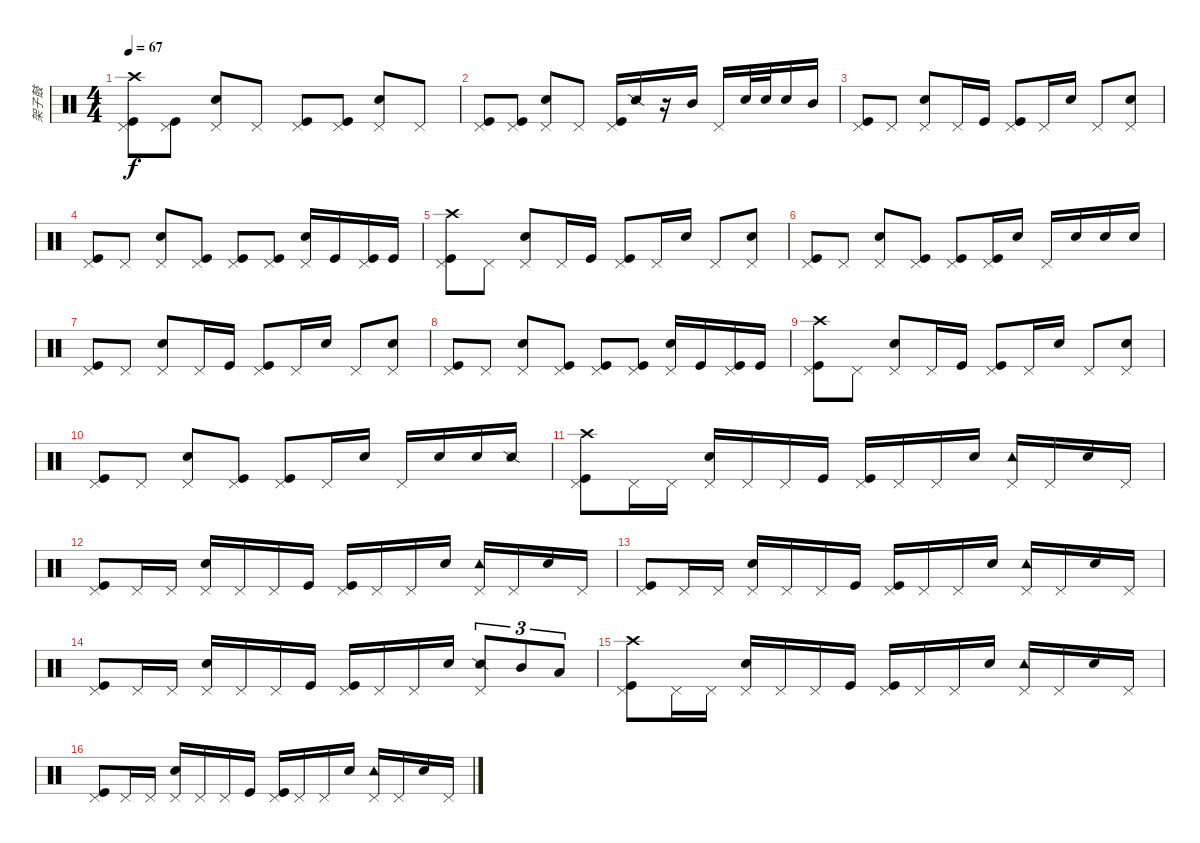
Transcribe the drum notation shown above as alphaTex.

\track ("架子鼓" "架子鼓") {instrument percussion}
\staff {score}
\articulation defaults
\ts (4 4)
\tempo 67
\clef neutral
\ks c
("Kick (hit)" "Pedal Hi-Hat (hit)" "Crash high (hit)").8{dy f} ("Kick (hit)" "Pedal Hi-Hat (hit)").8 ("Snare (hit) 2" "Pedal Hi-Hat (hit)").8 "Pedal Hi-Hat (hit)".8 ("Kick (hit)" "Pedal Hi-Hat (hit)").8 ("Kick (hit)" "Pedal Hi-Hat (hit)").8 ("Snare (hit) 2" "Pedal Hi-Hat (hit)").8 "Pedal Hi-Hat (hit)".8 |
("Kick (hit)" "Pedal Hi-Hat (hit)").8 ("Kick (hit)" "Pedal Hi-Hat (hit)").8 ("Snare (hit) 2" "Pedal Hi-Hat (hit)").8 "Pedal Hi-Hat (hit)".8 ("Kick (hit)" "Pedal Hi-Hat (hit)").16 "Snare (side stick) 2".16 r.16 "Mid Tom (hit)".16 "Pedal Hi-Hat (hit)".16 "Snare (hit) 2".32 "Snare (hit) 2".32 "Snare (hit) 2".16 "Mid Tom (hit)".16 |
("Kick (hit)" "Pedal Hi-Hat (hit)").8 "Pedal Hi-Hat (hit)".8 ("Snare (hit) 2" "Pedal Hi-Hat (hit)").8 "Pedal Hi-Hat (hit)".16 "Kick (hit)".16 ("Kick (hit)" "Pedal Hi-Hat (hit)").8 "Pedal Hi-Hat (hit)".16 "Snare (hit) 2".16 "Pedal Hi-Hat (hit)".8 ("Snare (hit) 2" "Pedal Hi-Hat (hit)").8 |
("Kick (hit)" "Pedal Hi-Hat (hit)").8 "Pedal Hi-Hat (hit)".8 ("Snare (hit) 2" "Pedal Hi-Hat (hit)").8 ("Kick (hit)" "Pedal Hi-Hat (hit)").8 ("Kick (hit)" "Pedal Hi-Hat (hit)").8 ("Kick (hit)" "Pedal Hi-Hat (hit)").8 ("Snare (hit) 2" "Pedal Hi-Hat (hit)").16 "Kick (hit)".16 ("Kick (hit)" "Pedal Hi-Hat (hit)").16 "Kick (hit)".16 |
("Kick (hit)" "Pedal Hi-Hat (hit)" "Crash high (hit)").8 "Pedal Hi-Hat (hit)".8 ("Snare (hit) 2" "Pedal Hi-Hat (hit)").8 "Pedal Hi-Hat (hit)".16 "Kick (hit)".16 ("Kick (hit)" "Pedal Hi-Hat (hit)").8 "Pedal Hi-Hat (hit)".16 "Snare (hit) 2".16 "Pedal Hi-Hat (hit)".8 ("Snare (hit) 2" "Pedal Hi-Hat (hit)").8 |
("Kick (hit)" "Pedal Hi-Hat (hit)").8 "Pedal Hi-Hat (hit)".8 ("Snare (hit) 2" "Pedal Hi-Hat (hit)").8 ("Kick (hit)" "Pedal Hi-Hat (hit)").8 ("Kick (hit)" "Pedal Hi-Hat (hit)").8 ("Kick (hit)" "Pedal Hi-Hat (hit)").16 "Snare (hit) 2".16 "Pedal Hi-Hat (hit)".16 "Snare (hit) 2".16 "Snare (hit) 2".16 "Snare (hit) 2".16 |
("Kick (hit)" "Pedal Hi-Hat (hit)").8 "Pedal Hi-Hat (hit)".8 ("Snare (hit) 2" "Pedal Hi-Hat (hit)").8 "Pedal Hi-Hat (hit)".16 "Kick (hit)".16 ("Kick (hit)" "Pedal Hi-Hat (hit)").8 "Pedal Hi-Hat (hit)".16 "Snare (hit) 2".16 "Pedal Hi-Hat (hit)".8 ("Snare (hit) 2" "Pedal Hi-Hat (hit)").8 |
("Kick (hit)" "Pedal Hi-Hat (hit)").8 "Pedal Hi-Hat (hit)".8 ("Snare (hit) 2" "Pedal Hi-Hat (hit)").8 ("Kick (hit)" "Pedal Hi-Hat (hit)").8 ("Kick (hit)" "Pedal Hi-Hat (hit)").8 ("Kick (hit)" "Pedal Hi-Hat (hit)").8 ("Snare (hit) 2" "Pedal Hi-Hat (hit)").16 "Kick (hit)".16 ("Kick (hit)" "Pedal Hi-Hat (hit)").16 "Kick (hit)".16 |
("Kick (hit)" "Pedal Hi-Hat (hit)" "Crash high (hit)").8 "Pedal Hi-Hat (hit)".8 ("Snare (hit) 2" "Pedal Hi-Hat (hit)").8 "Pedal Hi-Hat (hit)".16 "Kick (hit)".16 ("Kick (hit)" "Pedal Hi-Hat (hit)").8 "Pedal Hi-Hat (hit)".16 "Snare (hit) 2".16 "Pedal Hi-Hat (hit)".8 ("Snare (hit) 2" "Pedal Hi-Hat (hit)").8 |
("Kick (hit)" "Pedal Hi-Hat (hit)").8 "Pedal Hi-Hat (hit)".8 ("Snare (hit) 2" "Pedal Hi-Hat (hit)").8 ("Kick (hit)" "Pedal Hi-Hat (hit)").8 ("Kick (hit)" "Pedal Hi-Hat (hit)").8 "Pedal Hi-Hat (hit)".16 "Snare (hit) 2".16 "Pedal Hi-Hat (hit)".16 "Snare (hit) 2".16 "Snare (hit) 2".16 "Snare (side stick) 2".16 |
("Kick (hit)" "Pedal Hi-Hat (hit)" "Crash high (hit)").8 "Pedal Hi-Hat (hit)".16 "Pedal Hi-Hat (hit)".16 ("Snare (hit) 2" "Pedal Hi-Hat (hit)").16 "Pedal Hi-Hat (hit)".16 "Pedal Hi-Hat (hit)".16 "Kick (hit)".16 ("Kick (hit)" "Pedal Hi-Hat (hit)").16 "Pedal Hi-Hat (hit)".16 "Pedal Hi-Hat (hit)".16 "Snare (hit) 2".16 ("Tambourine (hit)" "Pedal Hi-Hat (hit)").16 "Pedal Hi-Hat (hit)".16 "Snare (hit) 2".16 "Pedal Hi-Hat (hit)".16 |
("Kick (hit)" "Pedal Hi-Hat (hit)").8 "Pedal Hi-Hat (hit)".16 "Pedal Hi-Hat (hit)".16 ("Snare (hit) 2" "Pedal Hi-Hat (hit)").16 "Pedal Hi-Hat (hit)".16 "Pedal Hi-Hat (hit)".16 "Kick (hit)".16 ("Kick (hit)" "Pedal Hi-Hat (hit)").16 "Pedal Hi-Hat (hit)".16 "Pedal Hi-Hat (hit)".16 "Snare (hit) 2".16 ("Tambourine (hit)" "Pedal Hi-Hat (hit)").16 "Pedal Hi-Hat (hit)".16 "Snare (hit) 2".16 "Pedal Hi-Hat (hit)".16 |
("Kick (hit)" "Pedal Hi-Hat (hit)").8 "Pedal Hi-Hat (hit)".16 "Pedal Hi-Hat (hit)".16 ("Snare (hit) 2" "Pedal Hi-Hat (hit)").16 "Pedal Hi-Hat (hit)".16 "Pedal Hi-Hat (hit)".16 "Kick (hit)".16 ("Kick (hit)" "Pedal Hi-Hat (hit)").16 "Pedal Hi-Hat (hit)".16 "Pedal Hi-Hat (hit)".16 "Snare (hit) 2".16 ("Tambourine (hit)" "Pedal Hi-Hat (hit)").16 "Pedal Hi-Hat (hit)".16 "Snare (hit) 2".16 "Pedal Hi-Hat (hit)".16 |
("Kick (hit)" "Pedal Hi-Hat (hit)").8 "Pedal Hi-Hat (hit)".16 "Pedal Hi-Hat (hit)".16 ("Snare (hit) 2" "Pedal Hi-Hat (hit)").16 "Pedal Hi-Hat (hit)".16 "Pedal Hi-Hat (hit)".16 "Kick (hit)".16 ("Kick (hit)" "Pedal Hi-Hat (hit)").16 "Pedal Hi-Hat (hit)".16 "Pedal Hi-Hat (hit)".16 "Snare (hit) 2".16 ("Snare (side stick) 2" "Pedal Hi-Hat (hit)").8{tu (3 2)} "Mid Tom (hit)".8{tu (3 2)} "Low Tom (hit)".8{tu (3 2)} |
("Kick (hit)" "Pedal Hi-Hat (hit)" "Crash high (hit)").8 "Pedal Hi-Hat (hit)".16 "Pedal Hi-Hat (hit)".16 ("Snare (hit) 2" "Pedal Hi-Hat (hit)").16 "Pedal Hi-Hat (hit)".16 "Pedal Hi-Hat (hit)".16 "Kick (hit)".16 ("Kick (hit)" "Pedal Hi-Hat (hit)").16 "Pedal Hi-Hat (hit)".16 "Pedal Hi-Hat (hit)".16 "Snare (hit) 2".16 ("Tambourine (hit)" "Pedal Hi-Hat (hit)").16 "Pedal Hi-Hat (hit)".16 "Snare (hit) 2".16 "Pedal Hi-Hat (hit)".16 |
("Kick (hit)" "Pedal Hi-Hat (hit)").8 "Pedal Hi-Hat (hit)".16 "Pedal Hi-Hat (hit)".16 ("Snare (hit) 2" "Pedal Hi-Hat (hit)").16 "Pedal Hi-Hat (hit)".16 "Pedal Hi-Hat (hit)".16 "Kick (hit)".16 ("Kick (hit)" "Pedal Hi-Hat (hit)").16 "Pedal Hi-Hat (hit)".16 "Pedal Hi-Hat (hit)".16 "Snare (hit) 2".16 ("Tambourine (hit)" "Pedal Hi-Hat (hit)").16 "Pedal Hi-Hat (hit)".16 "Snare (hit) 2".16 "Pedal Hi-Hat (hit)".16
